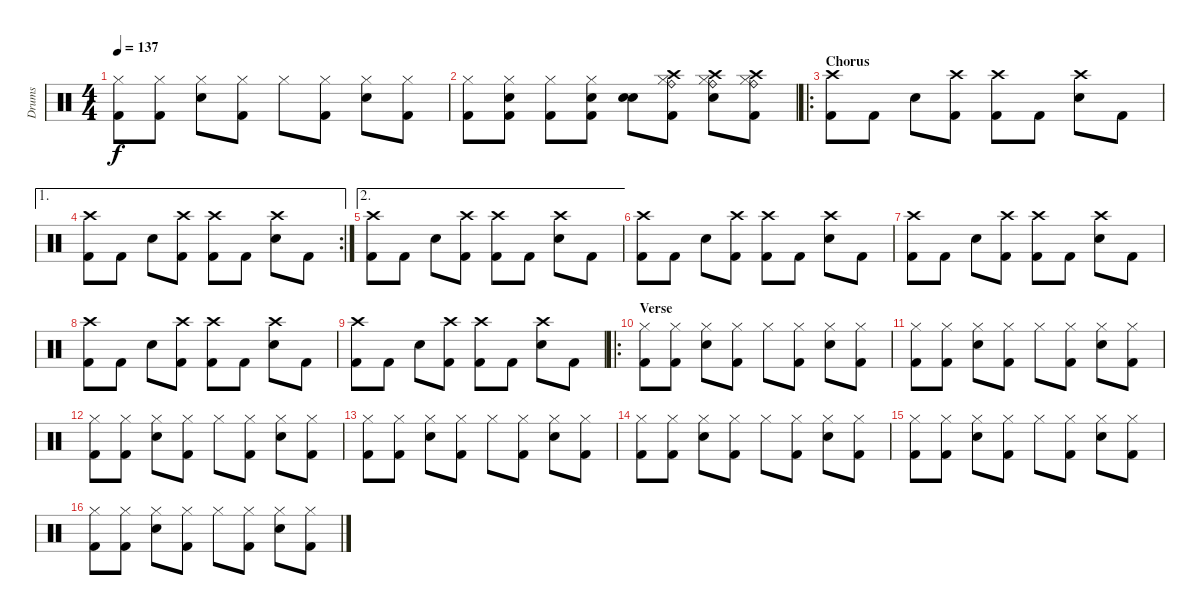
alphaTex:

\track ("Drums" "Drums") {instrument percussion}
\staff {score}
\articulation defaults
\ts (4 4)
\tempo 137
\clef neutral
\ks c
("Kick (hit) 2" "Hi-Hat (closed)").8{dy f} ("Kick (hit) 2" "Hi-Hat (closed)").8 ("Snare (hit) 2" "Hi-Hat (closed)").8 ("Kick (hit) 2" "Hi-Hat (closed)").8 "Hi-Hat (closed)".8 ("Kick (hit) 2" "Hi-Hat (closed)").8 ("Snare (hit) 2" "Hi-Hat (closed)").8 ("Kick (hit) 2" "Hi-Hat (closed)").8 |
("Kick (hit) 2" "Hi-Hat (closed)").8 ("Kick (hit) 2" "Snare (hit) 2" "Hi-Hat (closed)").8 ("Kick (hit) 2" "Hi-Hat (closed)").8 ("Kick (hit) 2" "Snare (hit) 2" "Hi-Hat (closed)").8 ("Snare (hit) 2" "Snare (hit) 2").8 ("Kick (hit) 2" "Crash high (hit)" "Ride (bell)" "Hi-Hat (closed)").8 ("Crash high (hit)" "Snare (hit) 2" "Ride (bell)" "Hi-Hat (closed)").8 ("Kick (hit) 2" "Crash high (hit)" "Ride (bell)" "Hi-Hat (closed)").8 |
\ro
\section ("" "Chorus")
("Kick (hit) 2" "Crash high (hit)").8 "Kick (hit) 2".8 "Snare (hit) 2".8 ("Kick (hit) 2" "Crash high (hit)").8 ("Kick (hit) 2" "Crash high (hit)").8 "Kick (hit) 2".8 ("Snare (hit) 2" "Crash high (hit)").8 "Kick (hit) 2".8 |
\ae 1
\rc 2
("Kick (hit) 2" "Crash high (hit)").8 "Kick (hit) 2".8 "Snare (hit) 2".8 ("Kick (hit) 2" "Crash high (hit)").8 ("Kick (hit) 2" "Crash high (hit)").8 "Kick (hit) 2".8 ("Snare (hit) 2" "Crash high (hit)").8 "Kick (hit) 2".8 |
\ae 2
("Kick (hit) 2" "Crash high (hit)").8 "Kick (hit) 2".8 "Snare (hit) 2".8 ("Kick (hit) 2" "Crash high (hit)").8 ("Kick (hit) 2" "Crash high (hit)").8 "Kick (hit) 2".8 ("Snare (hit) 2" "Crash high (hit)").8 "Kick (hit) 2".8 |
("Kick (hit) 2" "Crash high (hit)").8 "Kick (hit) 2".8 "Snare (hit) 2".8 ("Kick (hit) 2" "Crash high (hit)").8 ("Kick (hit) 2" "Crash high (hit)").8 "Kick (hit) 2".8 ("Snare (hit) 2" "Crash high (hit)").8 "Kick (hit) 2".8 |
("Kick (hit) 2" "Crash high (hit)").8 "Kick (hit) 2".8 "Snare (hit) 2".8 ("Kick (hit) 2" "Crash high (hit)").8 ("Kick (hit) 2" "Crash high (hit)").8 "Kick (hit) 2".8 ("Snare (hit) 2" "Crash high (hit)").8 "Kick (hit) 2".8 |
("Kick (hit) 2" "Crash high (hit)").8 "Kick (hit) 2".8 "Snare (hit) 2".8 ("Kick (hit) 2" "Crash high (hit)").8 ("Kick (hit) 2" "Crash high (hit)").8 "Kick (hit) 2".8 ("Snare (hit) 2" "Crash high (hit)").8 "Kick (hit) 2".8 |
("Kick (hit) 2" "Crash high (hit)").8 "Kick (hit) 2".8 "Snare (hit) 2".8 ("Kick (hit) 2" "Crash high (hit)").8 ("Kick (hit) 2" "Crash high (hit)").8 "Kick (hit) 2".8 ("Snare (hit) 2" "Crash high (hit)").8 "Kick (hit) 2".8 |
\ro
\section ("" "Verse")
("Kick (hit) 2" "Hi-Hat (closed)").8 ("Kick (hit) 2" "Hi-Hat (closed)").8 ("Snare (hit) 2" "Hi-Hat (closed)").8 ("Kick (hit) 2" "Hi-Hat (closed)").8 "Hi-Hat (closed)".8 ("Kick (hit) 2" "Hi-Hat (closed)").8 ("Snare (hit) 2" "Hi-Hat (closed)").8 ("Kick (hit) 2" "Hi-Hat (closed)").8 |
("Kick (hit) 2" "Hi-Hat (closed)").8 ("Kick (hit) 2" "Hi-Hat (closed)").8 ("Snare (hit) 2" "Hi-Hat (closed)").8 ("Kick (hit) 2" "Hi-Hat (closed)").8 "Hi-Hat (closed)".8 ("Kick (hit) 2" "Hi-Hat (closed)").8 ("Snare (hit) 2" "Hi-Hat (closed)").8 ("Kick (hit) 2" "Hi-Hat (closed)").8 |
("Kick (hit) 2" "Hi-Hat (closed)").8 ("Kick (hit) 2" "Hi-Hat (closed)").8 ("Snare (hit) 2" "Hi-Hat (closed)").8 ("Kick (hit) 2" "Hi-Hat (closed)").8 "Hi-Hat (closed)".8 ("Kick (hit) 2" "Hi-Hat (closed)").8 ("Snare (hit) 2" "Hi-Hat (closed)").8 ("Kick (hit) 2" "Hi-Hat (closed)").8 |
("Kick (hit) 2" "Hi-Hat (closed)").8 ("Kick (hit) 2" "Hi-Hat (closed)").8 ("Snare (hit) 2" "Hi-Hat (closed)").8 ("Kick (hit) 2" "Hi-Hat (closed)").8 "Hi-Hat (closed)".8 ("Kick (hit) 2" "Hi-Hat (closed)").8 ("Snare (hit) 2" "Hi-Hat (closed)").8 ("Kick (hit) 2" "Hi-Hat (closed)").8 |
("Kick (hit) 2" "Hi-Hat (closed)").8 ("Kick (hit) 2" "Hi-Hat (closed)").8 ("Snare (hit) 2" "Hi-Hat (closed)").8 ("Kick (hit) 2" "Hi-Hat (closed)").8 "Hi-Hat (closed)".8 ("Kick (hit) 2" "Hi-Hat (closed)").8 ("Snare (hit) 2" "Hi-Hat (closed)").8 ("Kick (hit) 2" "Hi-Hat (closed)").8 |
("Kick (hit) 2" "Hi-Hat (closed)").8 ("Kick (hit) 2" "Hi-Hat (closed)").8 ("Snare (hit) 2" "Hi-Hat (closed)").8 ("Kick (hit) 2" "Hi-Hat (closed)").8 "Hi-Hat (closed)".8 ("Kick (hit) 2" "Hi-Hat (closed)").8 ("Snare (hit) 2" "Hi-Hat (closed)").8 ("Kick (hit) 2" "Hi-Hat (closed)").8 |
("Kick (hit) 2" "Hi-Hat (closed)").8 ("Kick (hit) 2" "Hi-Hat (closed)").8 ("Snare (hit) 2" "Hi-Hat (closed)").8 ("Kick (hit) 2" "Hi-Hat (closed)").8 "Hi-Hat (closed)".8 ("Kick (hit) 2" "Hi-Hat (closed)").8 ("Snare (hit) 2" "Hi-Hat (closed)").8 ("Kick (hit) 2" "Hi-Hat (closed)").8
